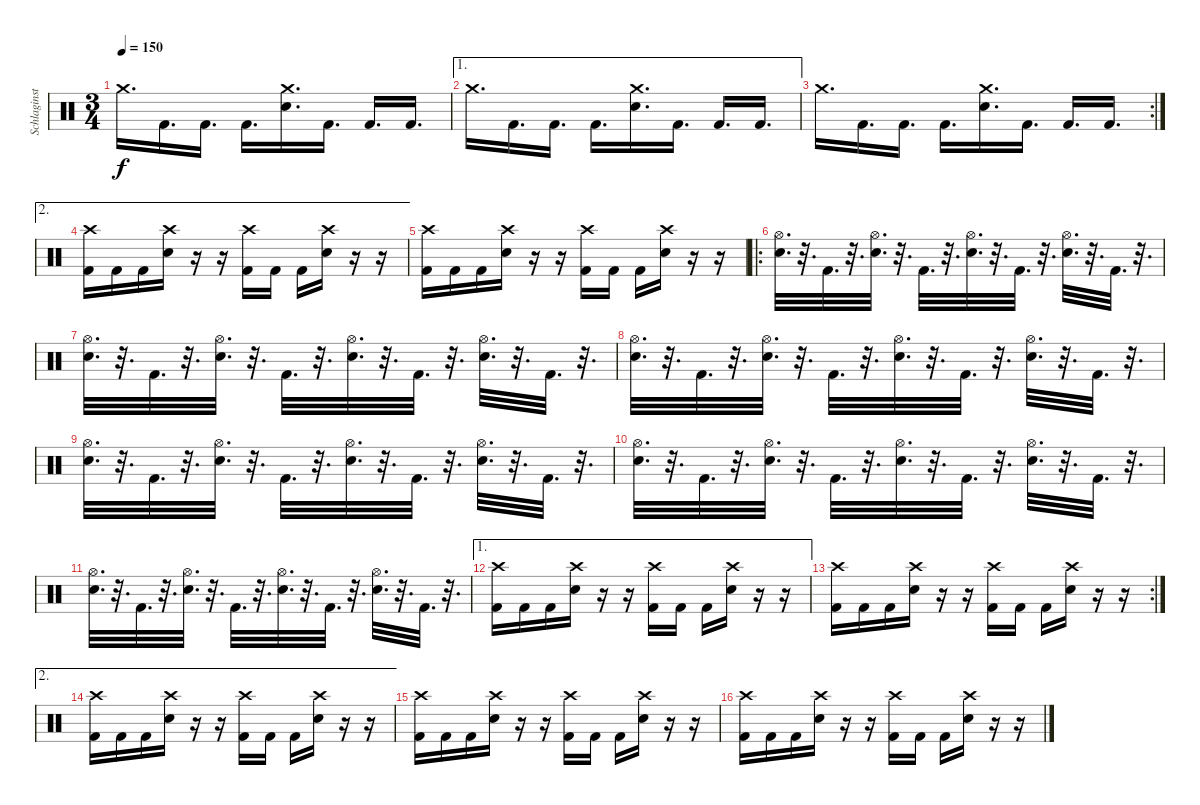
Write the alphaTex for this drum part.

\track ("Schlaginstrumente - Auswahl" "Schlaginst") {instrument percussion}
\staff {score}
\articulation defaults
\ts (3 4)
\tempo 150
\clef neutral
\ks c "Crash medium (hit)".16{d dy f} "Kick (hit) 2".16{d} "Kick (hit) 2".16{d} "Kick (hit) 2".16{d}
("Crash medium (hit)" "Snare (hit) 2").16{d} "Kick (hit) 2".16{d} "Kick (hit) 2".16{d} "Kick (hit) 2".16{d} |
\ae 1 "Crash medium (hit)".16{d} "Kick (hit) 2".16{d} "Kick (hit) 2".16{d} "Kick (hit) 2".16{d}
("Crash medium (hit)" "Snare (hit) 2").16{d} "Kick (hit) 2".16{d} "Kick (hit) 2".16{d} "Kick (hit) 2".16{d} |
\rc 2 "Crash medium (hit)".16{d} "Kick (hit) 2".16{d} "Kick (hit) 2".16{d} "Kick (hit) 2".16{d}
("Crash medium (hit)" "Snare (hit) 2").16{d} "Kick (hit) 2".16{d} "Kick (hit) 2".16{d} "Kick (hit) 2".16{d} |
\ae 2
("Crash high (hit)" "Kick (hit) 2").16 "Kick (hit) 2".16 "Kick (hit) 2".16 ("Crash high (hit)" "Snare (hit) 2").16 r.16 r.16 ("Crash high (hit)" "Kick (hit) 2").16 "Kick (hit) 2".16 "Kick (hit) 2".16 ("Crash high (hit)" "Snare (hit) 2").16 r.16 r.16 |
("Crash high (hit)" "Kick (hit) 2").16 "Kick (hit) 2".16 "Kick (hit) 2".16 ("Crash high (hit)" "Snare (hit) 2").16 r.16 r.16 ("Crash high (hit)" "Kick (hit) 2").16 "Kick (hit) 2".16 "Kick (hit) 2".16 ("Crash high (hit)" "Snare (hit) 2").16 r.16 r.16 |
\ro
("Hi-Hat (open)" "Snare (hit) 2").32{d} r.32{d} "Kick (hit) 2".32{d} r.32{d} ("Hi-Hat (open)" "Snare (hit) 2").32{d} r.32{d} "Kick (hit) 2".32{d} r.32{d} ("Hi-Hat (open)" "Snare (hit) 2").32{d} r.32{d} "Kick (hit) 2".32{d} r.32{d} ("Hi-Hat (open)" "Snare (hit) 2").32{d} r.32{d} "Kick (hit) 2".32{d} r.32{d} |
("Hi-Hat (open)" "Snare (hit) 2").32{d} r.32{d} "Kick (hit) 2".32{d} r.32{d} ("Hi-Hat (open)" "Snare (hit) 2").32{d} r.32{d} "Kick (hit) 2".32{d} r.32{d} ("Hi-Hat (open)" "Snare (hit) 2").32{d} r.32{d} "Kick (hit) 2".32{d} r.32{d} ("Hi-Hat (open)" "Snare (hit) 2").32{d} r.32{d} "Kick (hit) 2".32{d} r.32{d} |
("Hi-Hat (open)" "Snare (hit) 2").32{d} r.32{d} "Kick (hit) 2".32{d} r.32{d} ("Hi-Hat (open)" "Snare (hit) 2").32{d} r.32{d} "Kick (hit) 2".32{d} r.32{d} ("Hi-Hat (open)" "Snare (hit) 2").32{d} r.32{d} "Kick (hit) 2".32{d} r.32{d} ("Hi-Hat (open)" "Snare (hit) 2").32{d} r.32{d} "Kick (hit) 2".32{d} r.32{d} |
("Hi-Hat (open)" "Snare (hit) 2").32{d} r.32{d} "Kick (hit) 2".32{d} r.32{d} ("Hi-Hat (open)" "Snare (hit) 2").32{d} r.32{d} "Kick (hit) 2".32{d} r.32{d} ("Hi-Hat (open)" "Snare (hit) 2").32{d} r.32{d} "Kick (hit) 2".32{d} r.32{d} ("Hi-Hat (open)" "Snare (hit) 2").32{d} r.32{d} "Kick (hit) 2".32{d} r.32{d} |
("Hi-Hat (open)" "Snare (hit) 2").32{d} r.32{d} "Kick (hit) 2".32{d} r.32{d} ("Hi-Hat (open)" "Snare (hit) 2").32{d} r.32{d} "Kick (hit) 2".32{d} r.32{d} ("Hi-Hat (open)" "Snare (hit) 2").32{d} r.32{d} "Kick (hit) 2".32{d} r.32{d} ("Hi-Hat (open)" "Snare (hit) 2").32{d} r.32{d} "Kick (hit) 2".32{d} r.32{d} |
("Hi-Hat (open)" "Snare (hit) 2").32{d} r.32{d} "Kick (hit) 2".32{d} r.32{d} ("Hi-Hat (open)" "Snare (hit) 2").32{d} r.32{d} "Kick (hit) 2".32{d} r.32{d} ("Hi-Hat (open)" "Snare (hit) 2").32{d} r.32{d} "Kick (hit) 2".32{d} r.32{d} ("Hi-Hat (open)" "Snare (hit) 2").32{d} r.32{d} "Kick (hit) 2".32{d} r.32{d} |
\ae 1
("Crash high (hit)" "Kick (hit) 2").16 "Kick (hit) 2".16 "Kick (hit) 2".16 ("Crash high (hit)" "Snare (hit) 2").16 r.16 r.16 ("Crash high (hit)" "Kick (hit) 2").16 "Kick (hit) 2".16 "Kick (hit) 2".16 ("Crash high (hit)" "Snare (hit) 2").16 r.16 r.16 |
\rc 2
("Crash high (hit)" "Kick (hit) 2").16 "Kick (hit) 2".16 "Kick (hit) 2".16 ("Crash high (hit)" "Snare (hit) 2").16 r.16 r.16 ("Crash high (hit)" "Kick (hit) 2").16 "Kick (hit) 2".16 "Kick (hit) 2".16 ("Crash high (hit)" "Snare (hit) 2").16 r.16 r.16 |
\ae 2
("Crash high (hit)" "Kick (hit) 2").16 "Kick (hit) 2".16 "Kick (hit) 2".16 ("Crash high (hit)" "Snare (hit) 2").16 r.16 r.16 ("Crash high (hit)" "Kick (hit) 2").16 "Kick (hit) 2".16 "Kick (hit) 2".16 ("Crash high (hit)" "Snare (hit) 2").16 r.16 r.16 |
("Crash high (hit)" "Kick (hit) 2").16 "Kick (hit) 2".16 "Kick (hit) 2".16 ("Crash high (hit)" "Snare (hit) 2").16 r.16 r.16 ("Crash high (hit)" "Kick (hit) 2").16 "Kick (hit) 2".16 "Kick (hit) 2".16 ("Crash high (hit)" "Snare (hit) 2").16 r.16 r.16 |
("Crash high (hit)" "Kick (hit) 2").16 "Kick (hit) 2".16 "Kick (hit) 2".16 ("Crash high (hit)" "Snare (hit) 2").16 r.16 r.16 ("Crash high (hit)" "Kick (hit) 2").16 "Kick (hit) 2".16 "Kick (hit) 2".16 ("Crash high (hit)" "Snare (hit) 2").16 r.16 r.16
